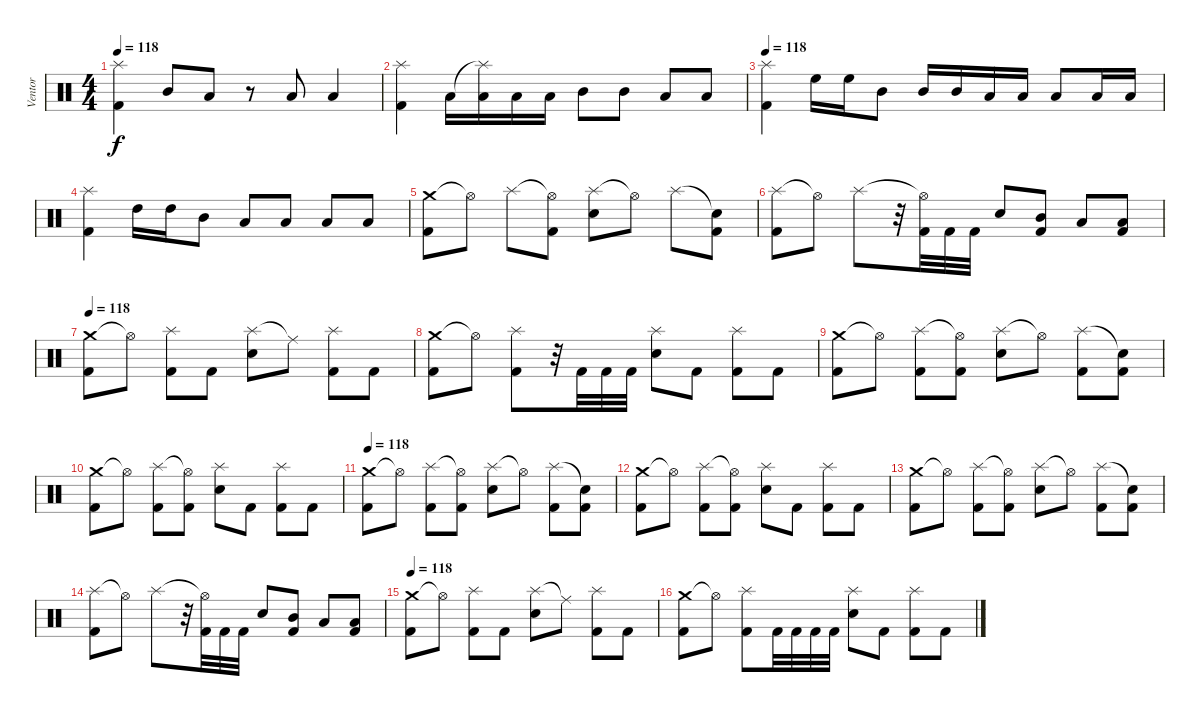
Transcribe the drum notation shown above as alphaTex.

\track ("Ventor" "Ventor") {instrument percussion}
\staff {score}
\articulation defaults
\ts (4 4)
\tempo 118
\clef neutral
\ks c
("Splash (hit)" "Kick (hit) 2").4{dy f} "Mid Tom (hit)".8 "Low Tom (hit)".8 r.8 "Low Tom (hit)".8 "Low Floor Tom (hit)".4 |
("Splash (hit)" "Kick (hit) 2").4 "Low Tom (hit)".16 ("Splash (hit)"{t} "Low Tom (hit)").16 "Low Tom (hit)".16 "Low Tom (hit)".16 "Mid Tom (hit)".8 "Mid Tom (hit)".8 "Low Tom (hit)".8 "Low Floor Tom (hit)".8 |
\tempo 118
("Splash (hit)" "Kick (hit) 2").4 "High Floor Tom (hit)".16 "High Floor Tom (hit)".16 "Mid Tom (hit)".8 "Mid Tom (hit)".16 "Mid Tom (hit)".16 "Low Tom (hit)".16 "Low Tom (hit)".16 "Low Tom (hit)".8 "Low Floor Tom (hit)".16 "Low Floor Tom (hit)".16 |
("Splash (hit)" "Kick (hit) 2").4 "High Tom (hit)".16 "High Tom (hit)".16 "Mid Tom (hit)".8 "Low Tom (hit)".8 "Low Tom (hit)".8 "Low Floor Tom (hit)".8 "Low Floor Tom (hit)".8 |
("Crash medium (hit)" "Kick (hit) 2").8 "Hi-Hat (open)"{t}.8 "Splash (hit)".8 ("Hi-Hat (open)"{t} "Kick (hit) 2").8 ("Splash (hit)" "Electric Snare (hit)").8 "Hi-Hat (open)"{t}.8 "Splash (hit)".8 ("Snare (hit)"{t} "Kick (hit) 2").8 |
("Splash (hit)" "Kick (hit) 2").8 "Hi-Hat (open)"{t}.8 "Splash (hit)".8 r.32 ("Hi-Hat (open)"{t} "Kick (hit) 2").32 "Kick (hit) 2".32 "Kick (hit) 2".32 "Electric Snare (hit)".8 ("Mid Tom (hit)" "Kick (hit) 2").8 "Low Tom (hit)".8 ("Low Floor Tom (hit)" "Kick (hit) 2").8 |
\tempo 118
("Crash medium (hit)" "Kick (hit) 2").8 "Hi-Hat (open)"{t}.8 ("Splash (hit)" "Kick (hit) 2").8 "Kick (hit) 2".8 ("Splash (hit)" "Electric Snare (hit)").8 "Ride (middle)"{t}.8 ("Splash (hit)" "Kick (hit) 2").8 "Kick (hit) 2".8 |
("Crash medium (hit)" "Kick (hit) 2").8 "Hi-Hat (open)"{t}.8 ("Splash (hit)" "Kick (hit) 2").8 r.32 "Kick (hit) 2".32 "Kick (hit) 2".32 "Kick (hit) 2".32 ("Splash (hit)" "Electric Snare (hit)").8 "Kick (hit) 2".8 ("Splash (hit)" "Kick (hit) 2").8 "Kick (hit) 2".8 |
("Crash medium (hit)" "Kick (hit) 2").8 "Hi-Hat (open)"{t}.8 ("Splash (hit)" "Kick (hit) 2").8 ("Hi-Hat (open)"{t} "Kick (hit) 2").8 ("Splash (hit)" "Electric Snare (hit)").8 "Hi-Hat (open)"{t}.8 ("Splash (hit)" "Kick (hit) 2").8 ("Snare (hit)"{t} "Kick (hit) 2").8 |
("Crash medium (hit)" "Kick (hit) 2").8 "Hi-Hat (open)"{t}.8 ("Splash (hit)" "Kick (hit) 2").8 ("Hi-Hat (open)"{t} "Kick (hit) 2").8 ("Splash (hit)" "Electric Snare (hit)").8 "Kick (hit) 2".8 ("Splash (hit)" "Kick (hit) 2").8 "Kick (hit) 2".8 |
\tempo 118
("Crash medium (hit)" "Kick (hit) 2").8 "Hi-Hat (open)"{t}.8 ("Splash (hit)" "Kick (hit) 2").8 ("Hi-Hat (open)"{t} "Kick (hit) 2").8 ("Splash (hit)" "Electric Snare (hit)").8 "Hi-Hat (open)"{t}.8 ("Splash (hit)" "Kick (hit) 2").8 ("Snare (hit)"{t} "Kick (hit) 2").8 |
("Crash medium (hit)" "Kick (hit) 2").8 "Hi-Hat (open)"{t}.8 ("Splash (hit)" "Kick (hit) 2").8 ("Hi-Hat (open)"{t} "Kick (hit) 2").8 ("Splash (hit)" "Electric Snare (hit)").8 "Kick (hit) 2".8 ("Splash (hit)" "Kick (hit) 2").8 "Kick (hit) 2".8 |
("Crash medium (hit)" "Kick (hit) 2").8 "Hi-Hat (open)"{t}.8 ("Splash (hit)" "Kick (hit) 2").8 ("Hi-Hat (open)"{t} "Kick (hit) 2").8 ("Splash (hit)" "Electric Snare (hit)").8 "Hi-Hat (open)"{t}.8 ("Splash (hit)" "Kick (hit) 2").8 ("Snare (hit)"{t} "Kick (hit) 2").8 |
("Splash (hit)" "Kick (hit) 2").8 "Hi-Hat (open)"{t}.8 "Splash (hit)".8 r.32 ("Hi-Hat (open)"{t} "Kick (hit) 2").32 "Kick (hit) 2".32 "Kick (hit) 2".32 "Electric Snare (hit)".8 ("Mid Tom (hit)" "Kick (hit) 2").8 "Low Tom (hit)".8 ("Low Floor Tom (hit)" "Kick (hit) 2").8 |
\tempo 118
("Crash medium (hit)" "Kick (hit) 2").8 "Hi-Hat (open)"{t}.8 ("Splash (hit)" "Kick (hit) 2").8 "Kick (hit) 2".8 ("Splash (hit)" "Electric Snare (hit)").8 "Ride (middle)"{t}.8 ("Splash (hit)" "Kick (hit) 2").8 "Kick (hit) 2".8 |
("Crash medium (hit)" "Kick (hit) 2").8 "Hi-Hat (open)"{t}.8 ("Splash (hit)" "Kick (hit) 2").8 "Kick (hit) 2".32 "Kick (hit) 2".32 "Kick (hit) 2".32 "Kick (hit) 2".32 ("Splash (hit)" "Electric Snare (hit)").8 "Kick (hit) 2".8 ("Splash (hit)" "Kick (hit) 2").8 "Kick (hit) 2".8
